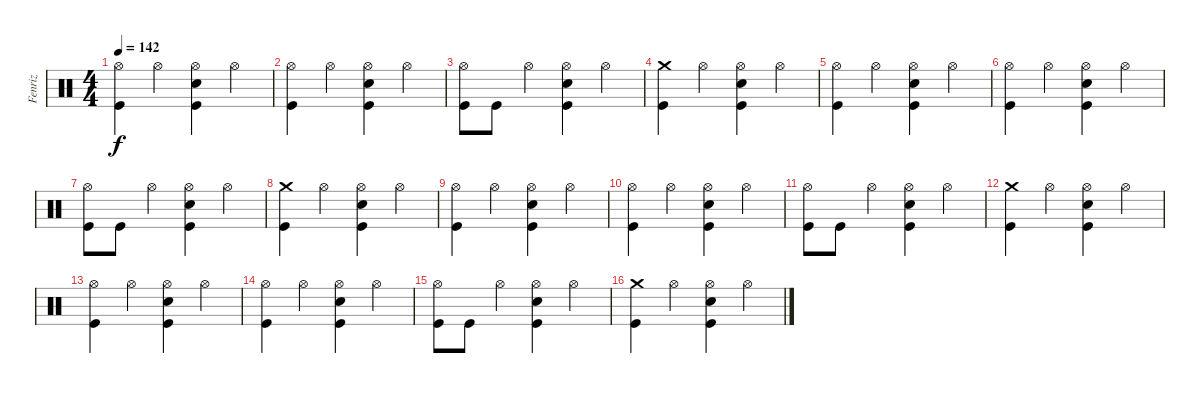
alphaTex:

\track ("Fenriz" "Fenriz") {instrument percussion}
\staff {score}
\articulation defaults
\ts (4 4)
\tempo 142
\clef neutral
\ks c
("Hi-Hat (open)" "Kick (hit)").4{dy f} "Hi-Hat (open)".4 ("Electric Snare (hit)" "Hi-Hat (open)" "Kick (hit)").4 "Hi-Hat (open)".4 |
("Hi-Hat (open)" "Kick (hit)").4 "Hi-Hat (open)".4 ("Electric Snare (hit)" "Hi-Hat (open)" "Kick (hit)").4 "Hi-Hat (open)".4 |
("Hi-Hat (open)" "Kick (hit)").8 "Kick (hit)".8 "Hi-Hat (open)".4 ("Electric Snare (hit)" "Hi-Hat (open)" "Kick (hit)").4 "Hi-Hat (open)".4 |
("Crash medium (hit)" "Kick (hit)").4 "Hi-Hat (open)".4 ("Electric Snare (hit)" "Hi-Hat (open)" "Kick (hit)").4 "Hi-Hat (open)".4 |
("Hi-Hat (open)" "Kick (hit)").4 "Hi-Hat (open)".4 ("Electric Snare (hit)" "Hi-Hat (open)" "Kick (hit)").4 "Hi-Hat (open)".4 |
("Hi-Hat (open)" "Kick (hit)").4 "Hi-Hat (open)".4 ("Electric Snare (hit)" "Hi-Hat (open)" "Kick (hit)").4 "Hi-Hat (open)".4 |
("Hi-Hat (open)" "Kick (hit)").8 "Kick (hit)".8 "Hi-Hat (open)".4 ("Electric Snare (hit)" "Hi-Hat (open)" "Kick (hit)").4 "Hi-Hat (open)".4 |
("Crash medium (hit)" "Kick (hit)").4 "Hi-Hat (open)".4 ("Electric Snare (hit)" "Hi-Hat (open)" "Kick (hit)").4 "Hi-Hat (open)".4 |
("Hi-Hat (open)" "Kick (hit)").4 "Hi-Hat (open)".4 ("Electric Snare (hit)" "Hi-Hat (open)" "Kick (hit)").4 "Hi-Hat (open)".4 |
("Hi-Hat (open)" "Kick (hit)").4 "Hi-Hat (open)".4 ("Electric Snare (hit)" "Hi-Hat (open)" "Kick (hit)").4 "Hi-Hat (open)".4 |
("Hi-Hat (open)" "Kick (hit)").8 "Kick (hit)".8 "Hi-Hat (open)".4 ("Electric Snare (hit)" "Hi-Hat (open)" "Kick (hit)").4 "Hi-Hat (open)".4 |
("Crash medium (hit)" "Kick (hit)").4 "Hi-Hat (open)".4 ("Electric Snare (hit)" "Hi-Hat (open)" "Kick (hit)").4 "Hi-Hat (open)".4 |
("Hi-Hat (open)" "Kick (hit)").4 "Hi-Hat (open)".4 ("Electric Snare (hit)" "Hi-Hat (open)" "Kick (hit)").4 "Hi-Hat (open)".4 |
("Hi-Hat (open)" "Kick (hit)").4 "Hi-Hat (open)".4 ("Electric Snare (hit)" "Hi-Hat (open)" "Kick (hit)").4 "Hi-Hat (open)".4 |
("Hi-Hat (open)" "Kick (hit)").8 "Kick (hit)".8 "Hi-Hat (open)".4 ("Electric Snare (hit)" "Hi-Hat (open)" "Kick (hit)").4 "Hi-Hat (open)".4 |
("Crash medium (hit)" "Kick (hit)").4 "Hi-Hat (open)".4 ("Electric Snare (hit)" "Hi-Hat (open)" "Kick (hit)").4 "Hi-Hat (open)".4
